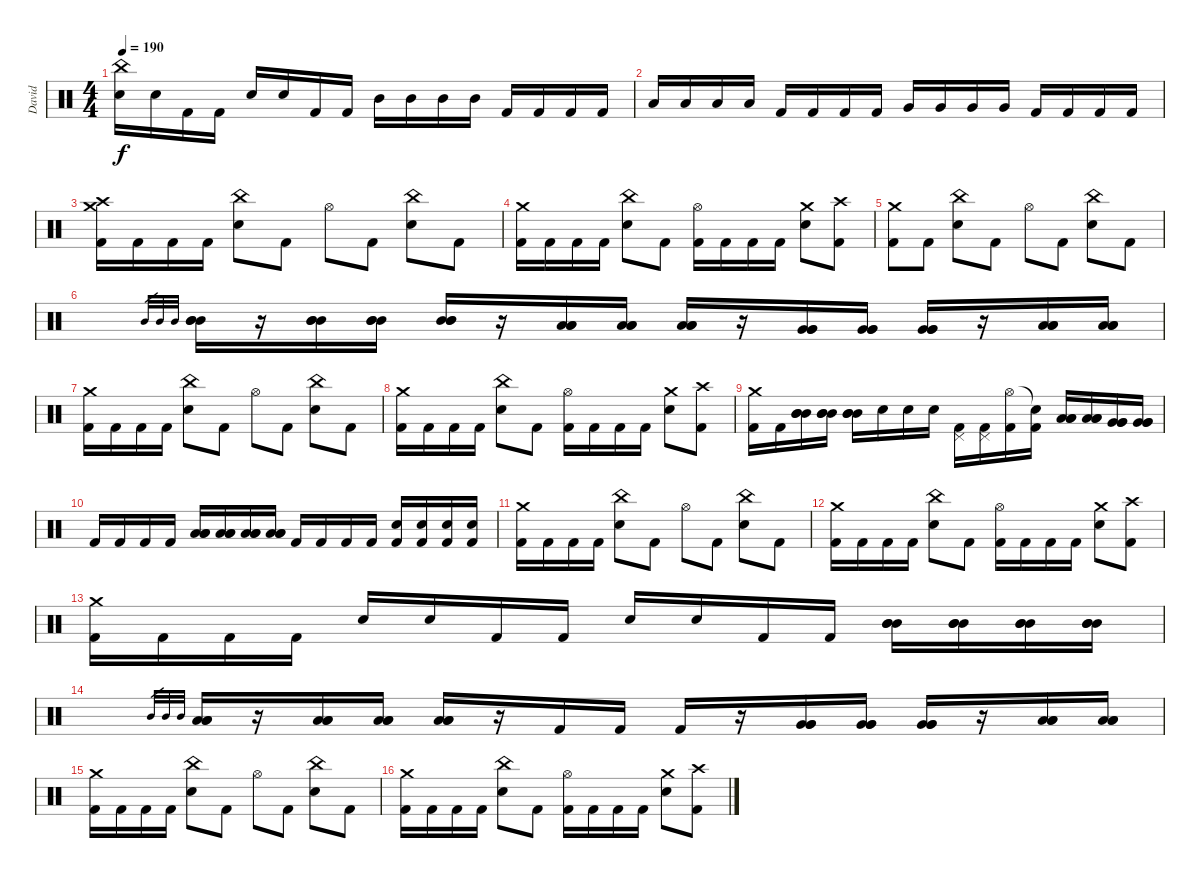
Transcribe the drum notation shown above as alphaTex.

\track ("David" "David") {instrument percussion}
\staff {score}
\articulation defaults
\ts (4 4)
\tempo 190
\clef neutral
\ks c
("China (hit)" "Electric Snare (hit)").16{dy f} "Electric Snare (hit)".16 "Kick (hit) 2".16 "Kick (hit) 2".16 "Electric Snare (hit)".16 "Electric Snare (hit)".16 "Kick (hit) 2".16 "Kick (hit) 2".16 "Mid Tom (hit)".16 "Mid Tom (hit)".16 "Mid Tom (hit)".16 "Mid Tom (hit)".16 "Kick (hit) 2".16 "Kick (hit) 2".16 "Kick (hit) 2".16 "Kick (hit) 2".16 |
"Low Tom (hit)".16 "Low Tom (hit)".16 "Low Tom (hit)".16 "Low Tom (hit)".16 "Kick (hit) 2".16 "Kick (hit) 2".16 "Kick (hit) 2".16 "Kick (hit) 2".16 "Very Low Tom (hit)".16 "Very Low Tom (hit)".16 "Very Low Tom (hit)".16 "Very Low Tom (hit)".16 "Kick (hit) 2".16 "Kick (hit) 2".16 "Kick (hit) 2".16 "Kick (hit) 2".16 |
("Crash medium (hit)" "Crash high (hit)" "Kick (hit) 2").16 "Kick (hit) 2".16 "Kick (hit) 2".16 "Kick (hit) 2".16 ("China (hit)" "Electric Snare (hit)").8 "Kick (hit) 2".8 "Hi-Hat (open)".8 "Kick (hit) 2".8 ("China (hit)" "Electric Snare (hit)").8 "Kick (hit) 2".8 |
("Crash medium (hit)" "Kick (hit) 2").16 "Kick (hit) 2".16 "Kick (hit) 2".16 "Kick (hit) 2".16 ("China (hit)" "Electric Snare (hit)").8 "Kick (hit) 2".8 ("Hi-Hat (open)" "Kick (hit) 2").16 "Kick (hit) 2".16 "Kick (hit) 2".16 "Kick (hit) 2".16 ("Crash medium (hit)" "Electric Snare (hit)").8 ("Crash high (hit)" "Kick (hit) 2").8 |
("Crash medium (hit)" "Kick (hit) 2").8 "Kick (hit) 2".8 ("China (hit)" "Electric Snare (hit)").8 "Kick (hit) 2".8 "Hi-Hat (open)".8 "Kick (hit) 2".8 ("China (hit)" "Electric Snare (hit)").8 "Kick (hit) 2".8 |
"Mid Tom (hit)".32{gr} "Mid Tom (hit)".32{gr} "Mid Tom (hit)".32{gr} ("Mid Tom (hit)" "Mid Tom (hit)" "Mid Tom (hit)").16 r.16 ("Mid Tom (hit)" "Mid Tom (hit)" "Mid Tom (hit)").16 ("Mid Tom (hit)" "Mid Tom (hit)" "Mid Tom (hit)").16 ("Mid Tom (hit)" "Mid Tom (hit)" "Mid Tom (hit)").16 r.16 ("Low Tom (hit)" "Low Tom (hit)" "Low Tom (hit)").16 ("Low Tom (hit)" "Low Tom (hit)" "Low Tom (hit)").16 ("Low Tom (hit)" "Low Tom (hit)" "Low Tom (hit)").16 r.16 ("Very Low Tom (hit)" "Very Low Tom (hit)" "Very Low Tom (hit)").16 ("Very Low Tom (hit)" "Very Low Tom (hit)" "Very Low Tom (hit)").16 ("Very Low Tom (hit)" "Very Low Tom (hit)" "Very Low Tom (hit)").16 r.16 ("Low Floor Tom (hit)" "Low Floor Tom (hit)" "Low Floor Tom (hit)").16 ("Low Floor Tom (hit)" "Low Floor Tom (hit)" "Low Floor Tom (hit)").16 |
("Crash medium (hit)" "Kick (hit) 2").16 "Kick (hit) 2".16 "Kick (hit) 2".16 "Kick (hit) 2".16 ("China (hit)" "Electric Snare (hit)").8 "Kick (hit) 2".8 "Hi-Hat (open)".8 "Kick (hit) 2".8 ("China (hit)" "Electric Snare (hit)").8 "Kick (hit) 2".8 |
("Crash medium (hit)" "Kick (hit) 2").16 "Kick (hit) 2".16 "Kick (hit) 2".16 "Kick (hit) 2".16 ("China (hit)" "Electric Snare (hit)").8 "Kick (hit) 2".8 ("Hi-Hat (open)" "Kick (hit) 2").16 "Kick (hit) 2".16 "Kick (hit) 2".16 "Kick (hit) 2".16 ("Crash medium (hit)" "Electric Snare (hit)").8 ("Crash high (hit)" "Kick (hit) 2").8 |
("Crash medium (hit)" "Kick (hit) 2").16 "Kick (hit) 2".16 ("Mid Tom (hit)" "Mid Tom (hit)" "Mid Tom (hit)").16 ("Mid Tom (hit)" "Mid Tom (hit)" "Mid Tom (hit)").16 ("Mid Tom (hit)" "Mid Tom (hit)" "Mid Tom (hit)").16 "Electric Snare (hit)".16 "Electric Snare (hit)".16 "Electric Snare (hit)".16 ("Pedal Hi-Hat (hit)" "Kick (hit) 2").16 ("Pedal Hi-Hat (hit)" "Kick (hit) 2").16 ("Hi-Hat (open)" "Kick (hit) 2").16 ("Snare (hit)"{t} "Kick (hit) 2").16 ("Low Tom (hit)" "Low Tom (hit)" "Low Tom (hit)").16 ("Low Tom (hit)" "Low Tom (hit)" "Low Tom (hit)").16 ("Very Low Tom (hit)" "Very Low Tom (hit)" "Very Low Tom (hit)").16 ("Very Low Tom (hit)" "Very Low Tom (hit)" "Very Low Tom (hit)").16 |
"Kick (hit) 2".16 "Kick (hit) 2".16 "Kick (hit) 2".16 "Kick (hit) 2".16 ("Low Floor Tom (hit)" "Low Floor Tom (hit)" "Low Floor Tom (hit)").16 ("Low Floor Tom (hit)" "Low Floor Tom (hit)" "Low Floor Tom (hit)").16 ("Low Floor Tom (hit)" "Low Floor Tom (hit)" "Low Floor Tom (hit)").16 ("Low Floor Tom (hit)" "Low Floor Tom (hit)" "Low Floor Tom (hit)").16 "Kick (hit) 2".16 "Kick (hit) 2".16 "Kick (hit) 2".16 "Kick (hit) 2".16 ("Electric Snare (hit)" "Kick (hit) 2").16 ("Electric Snare (hit)" "Kick (hit) 2").16 ("Electric Snare (hit)" "Kick (hit) 2").16 ("Electric Snare (hit)" "Kick (hit) 2").16 |
("Crash medium (hit)" "Kick (hit) 2").16 "Kick (hit) 2".16 "Kick (hit) 2".16 "Kick (hit) 2".16 ("China (hit)" "Electric Snare (hit)").8 "Kick (hit) 2".8 "Hi-Hat (open)".8 "Kick (hit) 2".8 ("China (hit)" "Electric Snare (hit)").8 "Kick (hit) 2".8 |
("Crash medium (hit)" "Kick (hit) 2").16 "Kick (hit) 2".16 "Kick (hit) 2".16 "Kick (hit) 2".16 ("China (hit)" "Electric Snare (hit)").8 "Kick (hit) 2".8 ("Hi-Hat (open)" "Kick (hit) 2").16 "Kick (hit) 2".16 "Kick (hit) 2".16 "Kick (hit) 2".16 ("Crash medium (hit)" "Electric Snare (hit)").8 ("Crash high (hit)" "Kick (hit) 2").8 |
("Crash medium (hit)" "Kick (hit) 2").16 "Kick (hit) 2".16 "Kick (hit) 2".16 "Kick (hit) 2".16 "Electric Snare (hit)".16 "Electric Snare (hit)".16 "Kick (hit) 2".16 "Kick (hit) 2".16 "Electric Snare (hit)".16 "Electric Snare (hit)".16 "Kick (hit) 2".16 "Kick (hit) 2".16 ("Mid Tom (hit)" "Mid Tom (hit)" "Mid Tom (hit)").16 ("Mid Tom (hit)" "Mid Tom (hit)" "Mid Tom (hit)").16 ("Mid Tom (hit)" "Mid Tom (hit)" "Mid Tom (hit)").16 ("Mid Tom (hit)" "Mid Tom (hit)" "Mid Tom (hit)").16 |
"Mid Tom (hit)".32{gr} "Mid Tom (hit)".32{gr} "Mid Tom (hit)".32{gr} ("Low Tom (hit)" "Low Tom (hit)" "Low Tom (hit)").16 r.16 ("Low Tom (hit)" "Low Tom (hit)" "Low Tom (hit)").16 ("Low Tom (hit)" "Low Tom (hit)" "Low Tom (hit)").16 ("Low Tom (hit)" "Low Tom (hit)" "Low Tom (hit)").16 r.16 "Kick (hit) 2".16 "Kick (hit) 2".16 "Kick (hit) 2".16 r.16 ("Very Low Tom (hit)" "Very Low Tom (hit)" "Very Low Tom (hit)").16 ("Very Low Tom (hit)" "Very Low Tom (hit)" "Very Low Tom (hit)").16 ("Very Low Tom (hit)" "Very Low Tom (hit)" "Very Low Tom (hit)").16 r.16 ("Low Floor Tom (hit)" "Low Floor Tom (hit)" "Low Floor Tom (hit)").16 ("Low Floor Tom (hit)" "Low Floor Tom (hit)" "Low Floor Tom (hit)").16 |
("Crash medium (hit)" "Kick (hit) 2").16 "Kick (hit) 2".16 "Kick (hit) 2".16 "Kick (hit) 2".16 ("China (hit)" "Electric Snare (hit)").8 "Kick (hit) 2".8 "Hi-Hat (open)".8 "Kick (hit) 2".8 ("China (hit)" "Electric Snare (hit)").8 "Kick (hit) 2".8 |
("Crash medium (hit)" "Kick (hit) 2").16 "Kick (hit) 2".16 "Kick (hit) 2".16 "Kick (hit) 2".16 ("China (hit)" "Electric Snare (hit)").8 "Kick (hit) 2".8 ("Hi-Hat (open)" "Kick (hit) 2").16 "Kick (hit) 2".16 "Kick (hit) 2".16 "Kick (hit) 2".16 ("Crash medium (hit)" "Electric Snare (hit)").8 ("Crash high (hit)" "Kick (hit) 2").8
